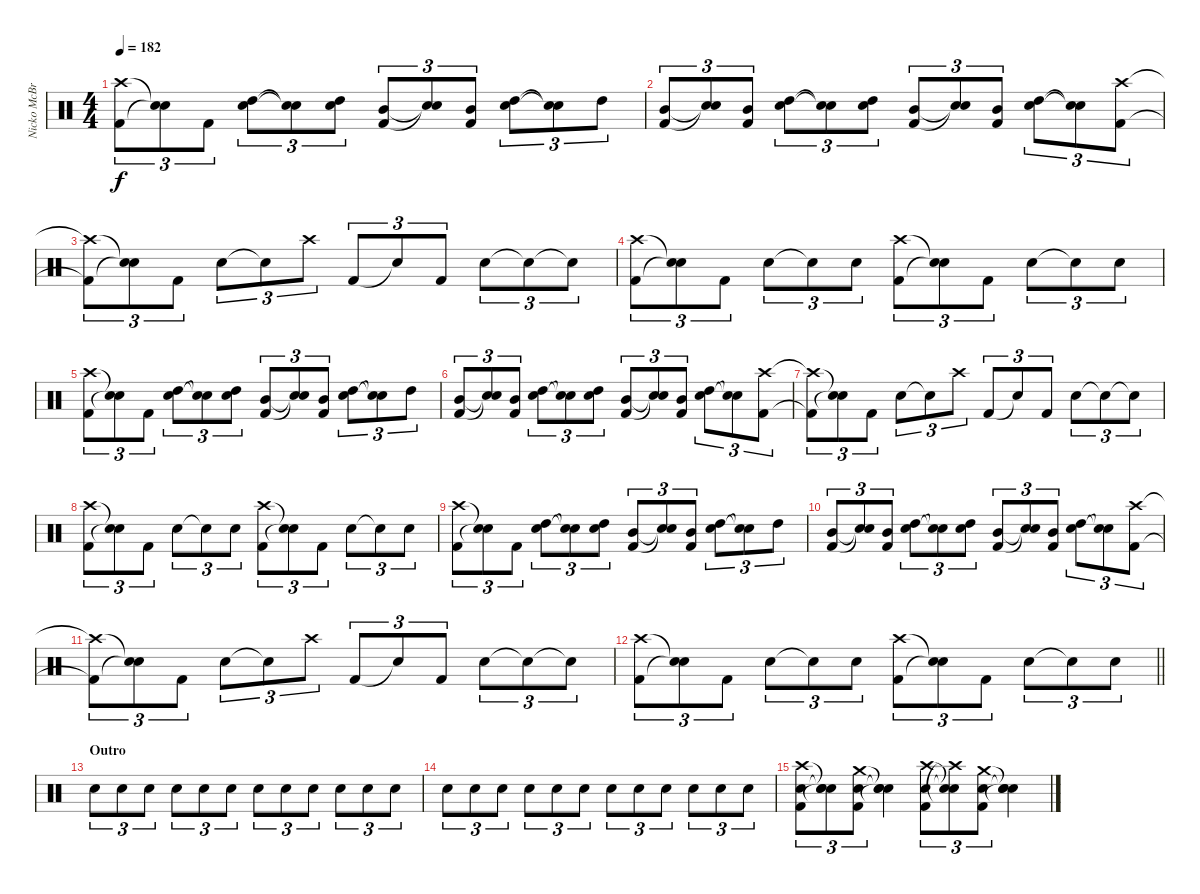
\track ("Nicko McBrain" "Nicko McBr") {instrument percussion}
\staff {score}
\articulation defaults
\ts (4 4)
\tempo 182
\clef neutral
\ks c
("Kick (hit) 2" "Crash high (hit)").8{tu (3 2) dy f} ("Snare (hit)"{t} "Snare (hit)"{t}).8{tu (3 2)} "Kick (hit) 2".8{tu (3 2)} ("High Tom (hit)" "Snare (hit) 2").8{tu (3 2)} ("Snare (hit)"{t} "Snare (hit)"{t}).8{tu (3 2)} ("High Tom (hit)" "Snare (hit) 2").8{tu (3 2)} ("Mid Tom (hit)" "Kick (hit) 2").8{tu (3 2)} ("Snare (hit)"{t} "Snare (hit)"{t}).8{tu (3 2)} ("Mid Tom (hit)" "Kick (hit) 2").8{tu (3 2)} ("High Tom (hit)" "Snare (hit) 2").8{tu (3 2)} ("Snare (hit)"{t} "Snare (hit)"{t}).8{tu (3 2)} "High Tom (hit)".8{tu (3 2)} |
("Mid Tom (hit)" "Kick (hit) 2").8{tu (3 2)} ("Snare (hit)"{t} "Snare (hit)"{t}).8{tu (3 2)} ("Mid Tom (hit)" "Kick (hit) 2").8{tu (3 2)} ("High Tom (hit)" "Snare (hit) 2").8{tu (3 2)} ("Snare (hit)"{t} "Snare (hit)"{t}).8{tu (3 2)} ("High Tom (hit)" "Snare (hit) 2").8{tu (3 2)} ("Mid Tom (hit)" "Kick (hit) 2").8{tu (3 2)} ("Snare (hit)"{t} "Snare (hit)"{t}).8{tu (3 2)} ("Mid Tom (hit)" "Kick (hit) 2").8{tu (3 2)} ("High Tom (hit)" "Snare (hit) 2").8{tu (3 2)} ("Snare (hit)"{t} "Snare (hit)"{t}).8{tu (3 2)} ("Kick (hit) 2" "Crash high (hit)").8{tu (3 2)} |
("Kick (hit) 2"{t} "Crash high (hit)"{t}).8{tu (3 2)} ("Snare (hit)"{t} "Snare (hit)"{t}).8{tu (3 2)} "Kick (hit) 2".8{tu (3 2)} "Snare (hit) 2".8{tu (3 2)} "Snare (hit)"{t}.8{tu (3 2)} "Crash high (hit)".8{tu (3 2)} "Kick (hit) 2".8{tu (3 2)} "Snare (hit)"{t}.8{tu (3 2)} "Kick (hit) 2".8{tu (3 2)} "Snare (hit) 2".8{tu (3 2)} "Snare (hit)"{t}.8{tu (3 2)} "Snare (hit)"{t}.8{tu (3 2)} |
("Kick (hit) 2" "Crash high (hit)").8{tu (3 2)} ("Snare (hit)"{t} "Snare (hit)"{t}).8{tu (3 2)} "Kick (hit) 2".8{tu (3 2)} "Snare (hit) 2".8{tu (3 2)} "Snare (hit)"{t}.8{tu (3 2)} "Snare (hit) 2".8{tu (3 2)} ("Kick (hit) 2" "Crash high (hit)").8{tu (3 2)} ("Snare (hit)"{t} "Snare (hit)"{t}).8{tu (3 2)} "Kick (hit) 2".8{tu (3 2)} "Snare (hit) 2".8{tu (3 2)} "Snare (hit)"{t}.8{tu (3 2)} "Snare (hit) 2".8{tu (3 2)} |
("Kick (hit) 2" "Crash high (hit)").8{tu (3 2)} ("Snare (hit)"{t} "Snare (hit)"{t}).8{tu (3 2)} "Kick (hit) 2".8{tu (3 2)} ("High Tom (hit)" "Snare (hit) 2").8{tu (3 2)} ("Snare (hit)"{t} "Snare (hit)"{t}).8{tu (3 2)} ("High Tom (hit)" "Snare (hit) 2").8{tu (3 2)} ("Mid Tom (hit)" "Kick (hit) 2").8{tu (3 2)} ("Snare (hit)"{t} "Snare (hit)"{t}).8{tu (3 2)} ("Mid Tom (hit)" "Kick (hit) 2").8{tu (3 2)} ("High Tom (hit)" "Snare (hit) 2").8{tu (3 2)} ("Snare (hit)"{t} "Snare (hit)"{t}).8{tu (3 2)} "High Tom (hit)".8{tu (3 2)} |
("Mid Tom (hit)" "Kick (hit) 2").8{tu (3 2)} ("Snare (hit)"{t} "Snare (hit)"{t}).8{tu (3 2)} ("Mid Tom (hit)" "Kick (hit) 2").8{tu (3 2)} ("High Tom (hit)" "Snare (hit) 2").8{tu (3 2)} ("Snare (hit)"{t} "Snare (hit)"{t}).8{tu (3 2)} ("High Tom (hit)" "Snare (hit) 2").8{tu (3 2)} ("Mid Tom (hit)" "Kick (hit) 2").8{tu (3 2)} ("Snare (hit)"{t} "Snare (hit)"{t}).8{tu (3 2)} ("Mid Tom (hit)" "Kick (hit) 2").8{tu (3 2)} ("High Tom (hit)" "Snare (hit) 2").8{tu (3 2)} ("Snare (hit)"{t} "Snare (hit)"{t}).8{tu (3 2)} ("Kick (hit) 2" "Crash high (hit)").8{tu (3 2)} |
("Kick (hit) 2"{t} "Crash high (hit)"{t}).8{tu (3 2)} ("Snare (hit)"{t} "Snare (hit)"{t}).8{tu (3 2)} "Kick (hit) 2".8{tu (3 2)} "Snare (hit) 2".8{tu (3 2)} "Snare (hit)"{t}.8{tu (3 2)} "Crash high (hit)".8{tu (3 2)} "Kick (hit) 2".8{tu (3 2)} "Snare (hit)"{t}.8{tu (3 2)} "Kick (hit) 2".8{tu (3 2)} "Snare (hit) 2".8{tu (3 2)} "Snare (hit)"{t}.8{tu (3 2)} "Snare (hit)"{t}.8{tu (3 2)} |
("Kick (hit) 2" "Crash high (hit)").8{tu (3 2)} ("Snare (hit)"{t} "Snare (hit)"{t}).8{tu (3 2)} "Kick (hit) 2".8{tu (3 2)} "Snare (hit) 2".8{tu (3 2)} "Snare (hit)"{t}.8{tu (3 2)} "Snare (hit) 2".8{tu (3 2)} ("Kick (hit) 2" "Crash high (hit)").8{tu (3 2)} ("Snare (hit)"{t} "Snare (hit)"{t}).8{tu (3 2)} "Kick (hit) 2".8{tu (3 2)} "Snare (hit) 2".8{tu (3 2)} "Snare (hit)"{t}.8{tu (3 2)} "Snare (hit) 2".8{tu (3 2)} |
("Kick (hit) 2" "Crash high (hit)").8{tu (3 2)} ("Snare (hit)"{t} "Snare (hit)"{t}).8{tu (3 2)} "Kick (hit) 2".8{tu (3 2)} ("High Tom (hit)" "Snare (hit) 2").8{tu (3 2)} ("Snare (hit)"{t} "Snare (hit)"{t}).8{tu (3 2)} ("High Tom (hit)" "Snare (hit) 2").8{tu (3 2)} ("Mid Tom (hit)" "Kick (hit) 2").8{tu (3 2)} ("Snare (hit)"{t} "Snare (hit)"{t}).8{tu (3 2)} ("Mid Tom (hit)" "Kick (hit) 2").8{tu (3 2)} ("High Tom (hit)" "Snare (hit) 2").8{tu (3 2)} ("Snare (hit)"{t} "Snare (hit)"{t}).8{tu (3 2)} "High Tom (hit)".8{tu (3 2)} |
("Mid Tom (hit)" "Kick (hit) 2").8{tu (3 2)} ("Snare (hit)"{t} "Snare (hit)"{t}).8{tu (3 2)} ("Mid Tom (hit)" "Kick (hit) 2").8{tu (3 2)} ("High Tom (hit)" "Snare (hit) 2").8{tu (3 2)} ("Snare (hit)"{t} "Snare (hit)"{t}).8{tu (3 2)} ("High Tom (hit)" "Snare (hit) 2").8{tu (3 2)} ("Mid Tom (hit)" "Kick (hit) 2").8{tu (3 2)} ("Snare (hit)"{t} "Snare (hit)"{t}).8{tu (3 2)} ("Mid Tom (hit)" "Kick (hit) 2").8{tu (3 2)} ("High Tom (hit)" "Snare (hit) 2").8{tu (3 2)} ("Snare (hit)"{t} "Snare (hit)"{t}).8{tu (3 2)} ("Kick (hit) 2" "Crash high (hit)").8{tu (3 2)} |
("Kick (hit) 2"{t} "Crash high (hit)"{t}).8{tu (3 2)} ("Snare (hit)"{t} "Snare (hit)"{t}).8{tu (3 2)} "Kick (hit) 2".8{tu (3 2)} "Snare (hit) 2".8{tu (3 2)} "Snare (hit)"{t}.8{tu (3 2)} "Crash high (hit)".8{tu (3 2)} "Kick (hit) 2".8{tu (3 2)} "Snare (hit)"{t}.8{tu (3 2)} "Kick (hit) 2".8{tu (3 2)} "Snare (hit) 2".8{tu (3 2)} "Snare (hit)"{t}.8{tu (3 2)} "Snare (hit)"{t}.8{tu (3 2)} |
\barLineRight lightlight
("Kick (hit) 2" "Crash high (hit)").8{tu (3 2)} ("Snare (hit)"{t} "Snare (hit)"{t}).8{tu (3 2)} "Kick (hit) 2".8{tu (3 2)} "Snare (hit) 2".8{tu (3 2)} "Snare (hit)"{t}.8{tu (3 2)} "Snare (hit) 2".8{tu (3 2)} ("Kick (hit) 2" "Crash high (hit)").8{tu (3 2)} ("Snare (hit)"{t} "Snare (hit)"{t}).8{tu (3 2)} "Kick (hit) 2".8{tu (3 2)} "Snare (hit) 2".8{tu (3 2)} "Snare (hit)"{t}.8{tu (3 2)} "Snare (hit) 2".8{tu (3 2)} |
\section ("" "Outro")
"Snare (hit) 2".8{tu (3 2)} "Snare (hit) 2".8{tu (3 2)} "Snare (hit) 2".8{tu (3 2)} "Snare (hit) 2".8{tu (3 2)} "Snare (hit) 2".8{tu (3 2)} "Snare (hit) 2".8{tu (3 2)} "Snare (hit) 2".8{tu (3 2)} "Snare (hit) 2".8{tu (3 2)} "Snare (hit) 2".8{tu (3 2)} "Snare (hit) 2".8{tu (3 2)} "Snare (hit) 2".8{tu (3 2)} "Snare (hit) 2".8{tu (3 2)} |
"Snare (hit) 2".8{tu (3 2)} "Snare (hit) 2".8{tu (3 2)} "Snare (hit) 2".8{tu (3 2)} "Snare (hit) 2".8{tu (3 2)} "Snare (hit) 2".8{tu (3 2)} "Snare (hit) 2".8{tu (3 2)} "Snare (hit) 2".8{tu (3 2)} "Snare (hit) 2".8{tu (3 2)} "Snare (hit) 2".8{tu (3 2)} "Snare (hit) 2".8{tu (3 2)} "Snare (hit) 2".8{tu (3 2)} "Snare (hit) 2".8{tu (3 2)} |
("Snare (hit) 2" "Kick (hit) 2" "Crash high (hit)").8{tu (3 2)} ("Snare (hit)"{t} "Snare (hit)"{t} "Snare (hit)"{t}).8{tu (3 2)} ("Snare (hit) 2" "Kick (hit) 2" "Crash medium (hit)").8{tu (3 2)} ("Snare (hit)"{t} "Snare (hit)"{t} "Snare (hit)"{t}).4 ("Snare (hit) 2" "Kick (hit) 2" "Crash high (hit)").8{tu (3 2)} ("Snare (hit) 2"{t} "Crash high (hit)"{t} "Snare (hit)"{t}).8{tu (3 2)} ("Snare (hit) 2" "Kick (hit) 2" "Crash medium (hit)").8{tu (3 2)} ("Snare (hit)"{t} "Snare (hit)"{t} "Snare (hit)"{t}).4
